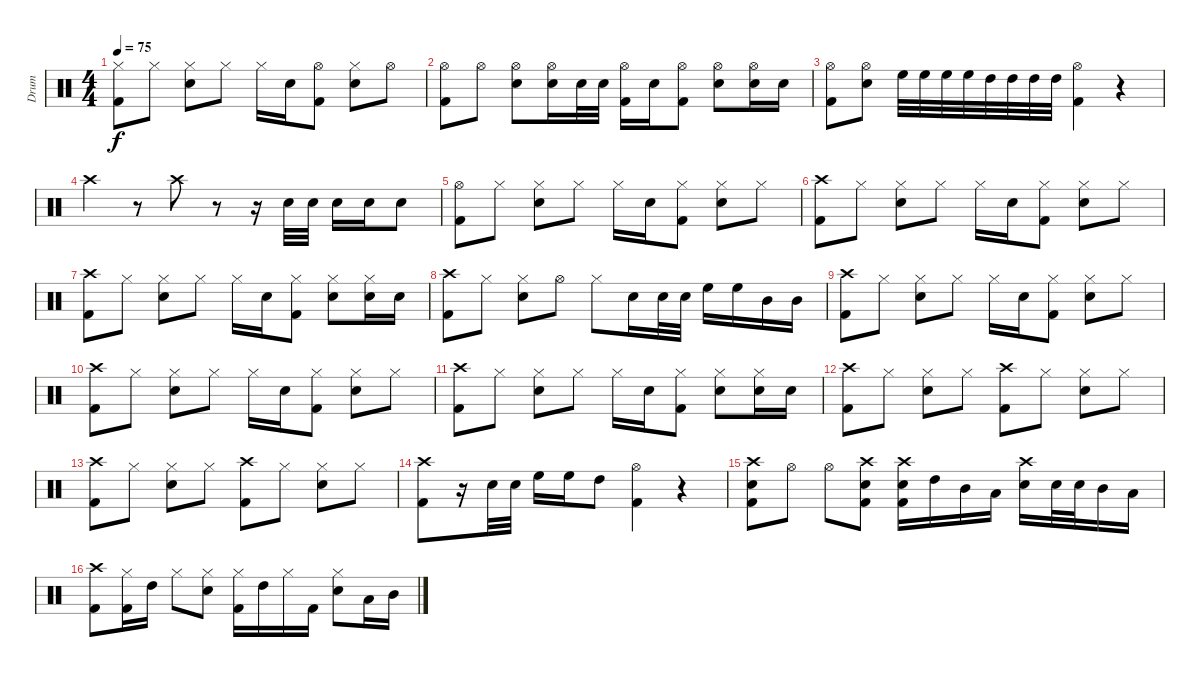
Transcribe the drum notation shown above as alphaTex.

\track ("Drum" "Drum") {instrument percussion}
\staff {score}
\articulation defaults
\ts (4 4)
\tempo 75
\clef neutral
\ks c
("Kick (hit) 2" "Hi-Hat (closed)").8{dy f} "Hi-Hat (closed)".8 ("Electric Snare (hit)" "Hi-Hat (closed)").8 "Hi-Hat (closed)".8 "Hi-Hat (closed)".16 "Electric Snare (hit)".16 ("Kick (hit) 2" "Hi-Hat (open)").8 ("Electric Snare (hit)" "Hi-Hat (closed)").8 "Hi-Hat (open)".8 |
("Hi-Hat (open)" "Kick (hit) 2").8 "Hi-Hat (open)".8 ("Electric Snare (hit)" "Hi-Hat (open)").8 ("Electric Snare (hit)" "Hi-Hat (open)").16 "Electric Snare (hit)".32 "Electric Snare (hit)".32 ("Kick (hit) 2" "Hi-Hat (open)").16 "Electric Snare (hit)".16 ("Kick (hit) 2" "Hi-Hat (open)").8 ("Electric Snare (hit)" "Hi-Hat (open)").8 ("Electric Snare (hit)" "Hi-Hat (open)").16 "Electric Snare (hit)".16 |
("Kick (hit) 2" "Hi-Hat (open)").8 ("Electric Snare (hit)" "Hi-Hat (open)").8 "High Floor Tom (hit)".32 "High Floor Tom (hit)".32 "High Floor Tom (hit)".32 "High Floor Tom (hit)".32 "High Tom (hit)".32 "High Tom (hit)".32 "High Tom (hit)".32 "High Tom (hit)".32 ("Kick (hit) 2" "Hi-Hat (open)").4 r.4 |
"Crash high (hit)".4 r.8 "Crash high (hit)".8 r.8 r.16 "Electric Snare (hit)".32 "Electric Snare (hit)".32 "Electric Snare (hit)".16 "Electric Snare (hit)".16 "Electric Snare (hit)".8 |
("Kick (hit) 2" "Hi-Hat (open)").8 "Hi-Hat (closed)".8 ("Electric Snare (hit)" "Hi-Hat (closed)").8 "Hi-Hat (closed)".8 "Hi-Hat (closed)".16 "Electric Snare (hit)".16 ("Kick (hit) 2" "Hi-Hat (closed)").8 ("Electric Snare (hit)" "Hi-Hat (closed)").8 "Hi-Hat (closed)".8 |
("Kick (hit) 2" "Crash high (hit)").8 "Hi-Hat (closed)".8 ("Electric Snare (hit)" "Hi-Hat (closed)").8 "Hi-Hat (closed)".8 "Hi-Hat (closed)".16 "Electric Snare (hit)".16 ("Kick (hit) 2" "Hi-Hat (closed)").8 ("Electric Snare (hit)" "Hi-Hat (closed)").8 "Hi-Hat (closed)".8 |
("Kick (hit) 2" "Crash high (hit)").8 "Hi-Hat (closed)".8 ("Electric Snare (hit)" "Hi-Hat (closed)").8 "Hi-Hat (closed)".8 "Hi-Hat (closed)".16 "Electric Snare (hit)".16 ("Kick (hit) 2" "Hi-Hat (closed)").8 ("Electric Snare (hit)" "Hi-Hat (closed)").8 ("Hi-Hat (closed)" "Electric Snare (hit)").16 "Electric Snare (hit)".16 |
("Kick (hit) 2" "Crash high (hit)").8 "Hi-Hat (closed)".8 ("Electric Snare (hit)" "Hi-Hat (closed)").8 "Hi-Hat (open)".8 "Hi-Hat (closed)".8 "Electric Snare (hit)".16 "Electric Snare (hit)".32 "Electric Snare (hit)".32 "High Floor Tom (hit)".16 "High Floor Tom (hit)".16 "Mid Tom (hit)".16 "Mid Tom (hit)".16 |
("Kick (hit) 2" "Crash high (hit)").8 "Hi-Hat (closed)".8 ("Electric Snare (hit)" "Hi-Hat (closed)").8 "Hi-Hat (closed)".8 "Hi-Hat (closed)".16 "Electric Snare (hit)".16 ("Kick (hit) 2" "Hi-Hat (closed)").8 ("Electric Snare (hit)" "Hi-Hat (closed)").8 "Hi-Hat (closed)".8 |
("Kick (hit) 2" "Crash high (hit)").8 "Hi-Hat (closed)".8 ("Electric Snare (hit)" "Hi-Hat (closed)").8 "Hi-Hat (closed)".8 "Hi-Hat (closed)".16 "Electric Snare (hit)".16 ("Kick (hit) 2" "Hi-Hat (closed)").8 ("Electric Snare (hit)" "Hi-Hat (closed)").8 "Hi-Hat (closed)".8 |
("Kick (hit) 2" "Crash high (hit)").8 "Hi-Hat (closed)".8 ("Electric Snare (hit)" "Hi-Hat (closed)").8 "Hi-Hat (closed)".8 "Hi-Hat (closed)".16 "Electric Snare (hit)".16 ("Kick (hit) 2" "Hi-Hat (closed)").8 ("Electric Snare (hit)" "Hi-Hat (closed)").8 ("Hi-Hat (closed)" "Electric Snare (hit)").16 "Electric Snare (hit)".16 |
("Kick (hit) 2" "Crash high (hit)").8 "Hi-Hat (closed)".8 ("Electric Snare (hit)" "Hi-Hat (closed)").8 "Hi-Hat (closed)".8 ("Kick (hit) 2" "Crash high (hit)").8 "Hi-Hat (closed)".8 ("Electric Snare (hit)" "Hi-Hat (closed)").8 "Hi-Hat (closed)".8 |
("Kick (hit) 2" "Crash high (hit)").8 "Hi-Hat (closed)".8 ("Electric Snare (hit)" "Hi-Hat (closed)").8 "Hi-Hat (closed)".8 ("Kick (hit) 2" "Crash high (hit)").8 "Hi-Hat (closed)".8 ("Electric Snare (hit)" "Hi-Hat (closed)").8 "Hi-Hat (closed)".8 |
("Kick (hit) 2" "Crash high (hit)").8 r.16 "Electric Snare (hit)".32 "Electric Snare (hit)".32 "High Floor Tom (hit)".16 "High Floor Tom (hit)".16 "High Tom (hit)".8 ("Hi-Hat (open)" "Kick (hit) 2").4 r.4 |
("Crash high (hit)" "Electric Snare (hit)" "Kick (hit) 2").8 "Hi-Hat (open)".8 "Hi-Hat (open)".8 ("Crash high (hit)" "Electric Snare (hit)" "Kick (hit) 2").8 ("Crash high (hit)" "Electric Snare (hit)" "Kick (hit) 2").16 "High Tom (hit)".16 "Mid Tom (hit)".16 "Low Tom (hit)".16 ("Crash high (hit)" "Electric Snare (hit)").16 "Electric Snare (hit)".32 "Electric Snare (hit)".32 "Mid Tom (hit)".16 "Low Tom (hit)".16 |
("Crash high (hit)" "Kick (hit) 2").8 ("Hi-Hat (closed)" "Kick (hit) 2").16 "High Tom (hit)".16 "Hi-Hat (closed)".8 ("Hi-Hat (closed)" "Electric Snare (hit)").8 ("Hi-Hat (closed)" "Kick (hit) 2").16 "High Tom (hit)".16 "Hi-Hat (closed)".16 "Kick (hit) 2".16 ("Hi-Hat (closed)" "Electric Snare (hit)").8 "Low Tom (hit)".16 "Mid Tom (hit)".16
